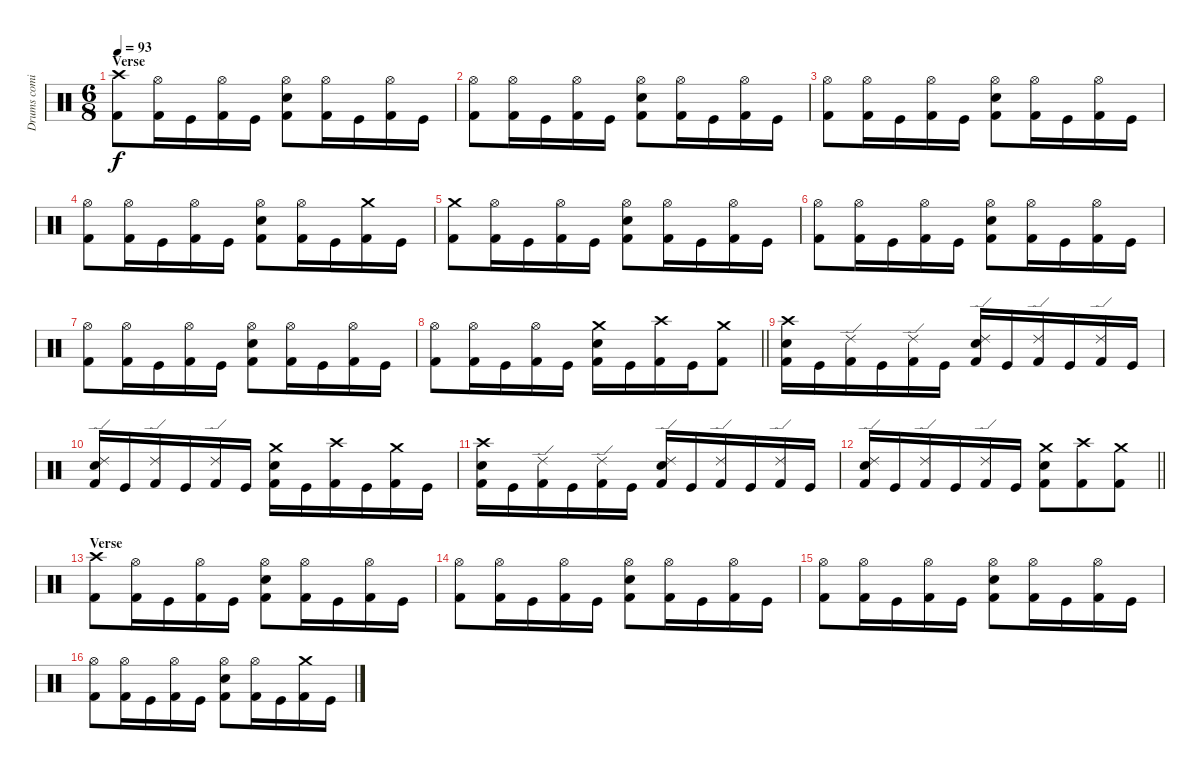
\track ("Drums coming soon" "Drums comi") {instrument percussion}
\staff {score}
\articulation defaults
\ts (6 8)
\section ("" "Verse")
\tempo 93
\clef neutral
\ks c
("Crash high (hit)" "Kick (hit) 2").8{dy f} ("Hi-Hat (open)" "Kick (hit) 2").16 "Kick (hit)".16 ("Hi-Hat (open)" "Kick (hit) 2").16 "Kick (hit)".16 ("Hi-Hat (open)" "Snare (hit) 2" "Kick (hit) 2").8 ("Hi-Hat (open)" "Kick (hit) 2").16 "Kick (hit)".16 ("Hi-Hat (open)" "Kick (hit) 2").16 "Kick (hit)".16 |
("Hi-Hat (open)" "Kick (hit) 2").8 ("Hi-Hat (open)" "Kick (hit) 2").16 "Kick (hit)".16 ("Hi-Hat (open)" "Kick (hit) 2").16 "Kick (hit)".16 ("Hi-Hat (open)" "Snare (hit) 2" "Kick (hit) 2").8 ("Hi-Hat (open)" "Kick (hit) 2").16 "Kick (hit)".16 ("Hi-Hat (open)" "Kick (hit) 2").16 "Kick (hit)".16 |
("Hi-Hat (open)" "Kick (hit) 2").8 ("Hi-Hat (open)" "Kick (hit) 2").16 "Kick (hit)".16 ("Hi-Hat (open)" "Kick (hit) 2").16 "Kick (hit)".16 ("Hi-Hat (open)" "Snare (hit) 2" "Kick (hit) 2").8 ("Hi-Hat (open)" "Kick (hit) 2").16 "Kick (hit)".16 ("Hi-Hat (open)" "Kick (hit) 2").16 "Kick (hit)".16 |
("Hi-Hat (open)" "Kick (hit) 2").8 ("Hi-Hat (open)" "Kick (hit) 2").16 "Kick (hit)".16 ("Hi-Hat (open)" "Kick (hit) 2").16 "Kick (hit)".16 ("Hi-Hat (open)" "Snare (hit) 2" "Kick (hit) 2").8 ("Hi-Hat (open)" "Kick (hit) 2").16 "Kick (hit)".16 ("Crash medium (hit)" "Kick (hit) 2").16 "Kick (hit)".16 |
("Crash medium (hit)" "Kick (hit) 2").8 ("Hi-Hat (open)" "Kick (hit) 2").16 "Kick (hit)".16 ("Hi-Hat (open)" "Kick (hit) 2").16 "Kick (hit)".16 ("Hi-Hat (open)" "Snare (hit) 2" "Kick (hit) 2").8 ("Hi-Hat (open)" "Kick (hit) 2").16 "Kick (hit)".16 ("Hi-Hat (open)" "Kick (hit) 2").16 "Kick (hit)".16 |
("Hi-Hat (open)" "Kick (hit) 2").8 ("Hi-Hat (open)" "Kick (hit) 2").16 "Kick (hit)".16 ("Hi-Hat (open)" "Kick (hit) 2").16 "Kick (hit)".16 ("Hi-Hat (open)" "Snare (hit) 2" "Kick (hit) 2").8 ("Hi-Hat (open)" "Kick (hit) 2").16 "Kick (hit)".16 ("Hi-Hat (open)" "Kick (hit) 2").16 "Kick (hit)".16 |
("Hi-Hat (open)" "Kick (hit) 2").8 ("Hi-Hat (open)" "Kick (hit) 2").16 "Kick (hit)".16 ("Hi-Hat (open)" "Kick (hit) 2").16 "Kick (hit)".16 ("Hi-Hat (open)" "Snare (hit) 2" "Kick (hit) 2").8 ("Hi-Hat (open)" "Kick (hit) 2").16 "Kick (hit)".16 ("Hi-Hat (open)" "Kick (hit) 2").16 "Kick (hit)".16 |
\barLineRight lightlight
("Hi-Hat (open)" "Kick (hit) 2").8 ("Hi-Hat (open)" "Kick (hit) 2").16 "Kick (hit)".16 ("Hi-Hat (open)" "Kick (hit) 2").16 "Kick (hit)".16 ("Crash medium (hit)" "Snare (hit) 2" "Kick (hit) 2").16 "Kick (hit)".16 ("Crash high (hit)" "Kick (hit) 2").16 "Kick (hit)".16 ("Crash medium (hit)" "Kick (hit) 2").8 |
\section ("" "")
("Crash high (hit)" "Snare (hit) 2" "Kick (hit) 2").16 "Kick (hit)".16 ("Ride (edge) 2" "Kick (hit) 2").16 "Kick (hit)".16 ("Ride (edge) 2" "Kick (hit) 2").16 "Kick (hit)".16 ("Ride (edge) 2" "Snare (hit) 2" "Kick (hit) 2").16 "Kick (hit)".16 ("Ride (edge) 2" "Kick (hit) 2").16 "Kick (hit)".16 ("Ride (edge) 2" "Kick (hit) 2").16 "Kick (hit)".16 |
("Ride (edge) 2" "Snare (hit) 2" "Kick (hit) 2").16 "Kick (hit)".16 ("Ride (edge) 2" "Kick (hit) 2").16 "Kick (hit)".16 ("Ride (edge) 2" "Kick (hit) 2").16 "Kick (hit)".16 ("Crash medium (hit)" "Snare (hit) 2" "Kick (hit) 2").16 "Kick (hit)".16 ("Crash high (hit)" "Kick (hit) 2").16 "Kick (hit)".16 ("Crash medium (hit)" "Kick (hit) 2").16 "Kick (hit)".16 |
("Crash high (hit)" "Snare (hit) 2" "Kick (hit) 2").16 "Kick (hit)".16 ("Ride (edge) 2" "Kick (hit) 2").16 "Kick (hit)".16 ("Ride (edge) 2" "Kick (hit) 2").16 "Kick (hit)".16 ("Ride (edge) 2" "Snare (hit) 2" "Kick (hit) 2").16 "Kick (hit)".16 ("Ride (edge) 2" "Kick (hit) 2").16 "Kick (hit)".16 ("Ride (edge) 2" "Kick (hit) 2").16 "Kick (hit)".16 |
\barLineRight lightlight
("Ride (edge) 2" "Snare (hit) 2" "Kick (hit) 2").16 "Kick (hit)".16 ("Ride (edge) 2" "Kick (hit) 2").16 "Kick (hit)".16 ("Ride (edge) 2" "Kick (hit) 2").16 "Kick (hit)".16 ("Crash medium (hit)" "Snare (hit) 2" "Kick (hit) 2").8 ("Crash high (hit)" "Kick (hit) 2").8 ("Crash medium (hit)" "Kick (hit) 2").8 |
\section ("" "Verse")
("Crash high (hit)" "Kick (hit) 2").8 ("Hi-Hat (open)" "Kick (hit) 2").16 "Kick (hit)".16 ("Hi-Hat (open)" "Kick (hit) 2").16 "Kick (hit)".16 ("Hi-Hat (open)" "Snare (hit) 2" "Kick (hit) 2").8 ("Hi-Hat (open)" "Kick (hit) 2").16 "Kick (hit)".16 ("Hi-Hat (open)" "Kick (hit) 2").16 "Kick (hit)".16 |
("Hi-Hat (open)" "Kick (hit) 2").8 ("Hi-Hat (open)" "Kick (hit) 2").16 "Kick (hit)".16 ("Hi-Hat (open)" "Kick (hit) 2").16 "Kick (hit)".16 ("Hi-Hat (open)" "Snare (hit) 2" "Kick (hit) 2").8 ("Hi-Hat (open)" "Kick (hit) 2").16 "Kick (hit)".16 ("Hi-Hat (open)" "Kick (hit) 2").16 "Kick (hit)".16 |
("Hi-Hat (open)" "Kick (hit) 2").8 ("Hi-Hat (open)" "Kick (hit) 2").16 "Kick (hit)".16 ("Hi-Hat (open)" "Kick (hit) 2").16 "Kick (hit)".16 ("Hi-Hat (open)" "Snare (hit) 2" "Kick (hit) 2").8 ("Hi-Hat (open)" "Kick (hit) 2").16 "Kick (hit)".16 ("Hi-Hat (open)" "Kick (hit) 2").16 "Kick (hit)".16 |
("Hi-Hat (open)" "Kick (hit) 2").8 ("Hi-Hat (open)" "Kick (hit) 2").16 "Kick (hit)".16 ("Hi-Hat (open)" "Kick (hit) 2").16 "Kick (hit)".16 ("Hi-Hat (open)" "Snare (hit) 2" "Kick (hit) 2").8 ("Hi-Hat (open)" "Kick (hit) 2").16 "Kick (hit)".16 ("Crash medium (hit)" "Kick (hit) 2").16 "Kick (hit)".16
